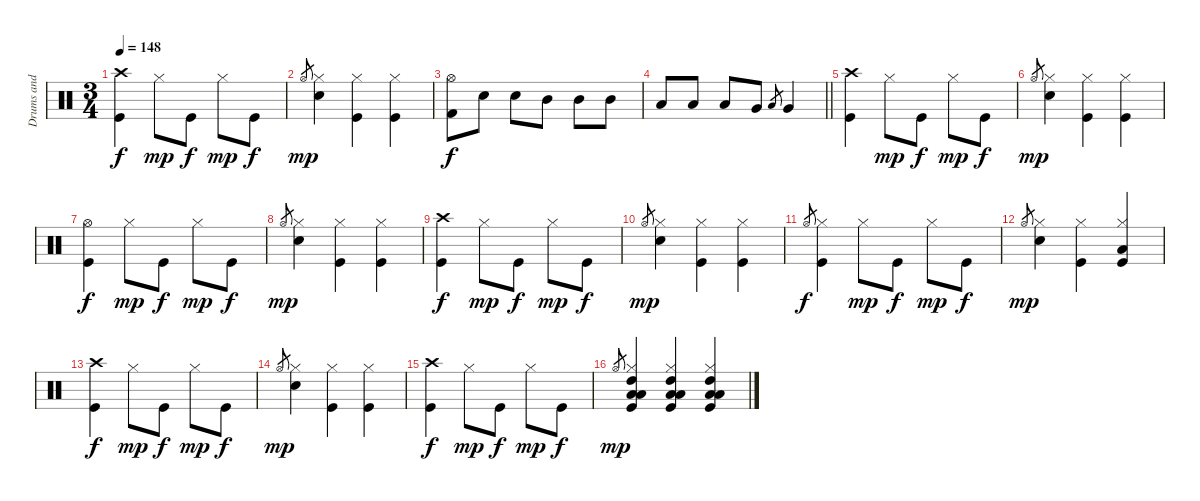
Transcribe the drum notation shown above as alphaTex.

\track ("Drums and percussion" "Drums and ") {instrument percussion}
\staff {score}
\articulation defaults
\ts (3 4)
\tempo 148
\clef neutral
\ks c
("Crash high (hit)" "Kick (hit)").4{dy f} "Hi-Hat (closed)".8{dy mp} "Kick (hit)".8{dy f} "Hi-Hat (closed)".8{dy mp} "Kick (hit)".8{dy f} |
"Hi-Hat (open)".8{gr dy mp} ("Hi-Hat (closed)" "Electric Snare (hit)").4 ("Hi-Hat (closed)" "Kick (hit)").4 ("Hi-Hat (closed)" "Kick (hit)").4 |
("Hi-Hat (open)" "Kick (hit) 2").8{dy f} "Electric Snare (hit)".8 "Electric Snare (hit)".8 "Mid Tom (hit)".8 "Mid Tom (hit)".8 "Mid Tom (hit)".8 |
\barLineRight lightlight "Low Tom (hit)".8 "Low Tom (hit)".8 "Low Tom (hit)".8 "Very Low Tom (hit)".8 "Low Floor Tom (hit)".8{gr} "Very Low Tom (hit)".4
|
("Crash high (hit)" "Kick (hit)").4 "Hi-Hat (closed)".8{dy mp} "Kick (hit)".8{dy f} "Hi-Hat (closed)".8{dy mp} "Kick (hit)".8{dy f} |
"Hi-Hat (open)".8{gr dy mp} ("Hi-Hat (closed)" "Electric Snare (hit)").4 ("Hi-Hat (closed)" "Kick (hit)").4 ("Hi-Hat (closed)" "Kick (hit)").4 |
("Hi-Hat (open)" "Kick (hit)").4{dy f} "Hi-Hat (closed)".8{dy mp} "Kick (hit)".8{dy f} "Hi-Hat (closed)".8{dy mp} "Kick (hit)".8{dy f} |
"Hi-Hat (open)".8{gr dy mp} ("Hi-Hat (closed)" "Electric Snare (hit)").4 ("Hi-Hat (closed)" "Kick (hit)").4 ("Hi-Hat (closed)" "Kick (hit)").4 |
("Crash high (hit)" "Kick (hit)").4{dy f} "Hi-Hat (closed)".8{dy mp} "Kick (hit)".8{dy f} "Hi-Hat (closed)".8{dy mp} "Kick (hit)".8{dy f} |
"Hi-Hat (open)".8{gr dy mp} ("Hi-Hat (closed)" "Electric Snare (hit)").4 ("Hi-Hat (closed)" "Kick (hit)").4 ("Hi-Hat (closed)" "Kick (hit)").4 |
"Hi-Hat (open)".8{gr dy f} ("Hi-Hat (closed)" "Kick (hit)").4 "Hi-Hat (closed)".8{dy mp} "Kick (hit)".8{dy f} "Hi-Hat (closed)".8{dy mp} "Kick (hit)".8{dy f} |
"Hi-Hat (open)".8{gr dy mp} ("Hi-Hat (closed)" "Electric Snare (hit)").4 ("Hi-Hat (closed)" "Kick (hit)").4 ("Hi-Hat (closed)" "Low Tom (hit)" "Kick (hit)").4 |
("Crash high (hit)" "Kick (hit)").4{dy f} "Hi-Hat (closed)".8{dy mp} "Kick (hit)".8{dy f} "Hi-Hat (closed)".8{dy mp} "Kick (hit)".8{dy f} |
"Hi-Hat (open)".8{gr dy mp} ("Hi-Hat (closed)" "Electric Snare (hit)").4 ("Hi-Hat (closed)" "Kick (hit)").4 ("Hi-Hat (closed)" "Kick (hit)").4 |
("Crash high (hit)" "Kick (hit)").4{dy f} "Hi-Hat (closed)".8{dy mp} "Kick (hit)".8{dy f} "Hi-Hat (closed)".8{dy mp} "Kick (hit)".8{dy f} |
"Hi-Hat (open)".8{gr dy mp} ("Hi-Hat (closed)" "High Tom (hit)" "Low Floor Tom (hit)" "Low Tom (hit)" "Kick (hit)").4 ("Hi-Hat (closed)" "High Tom (hit)" "Low Floor Tom (hit)" "Low Tom (hit)" "Kick (hit)").4 ("Hi-Hat (closed)" "High Tom (hit)" "Low Floor Tom (hit)" "Low Tom (hit)" "Kick (hit)").4
